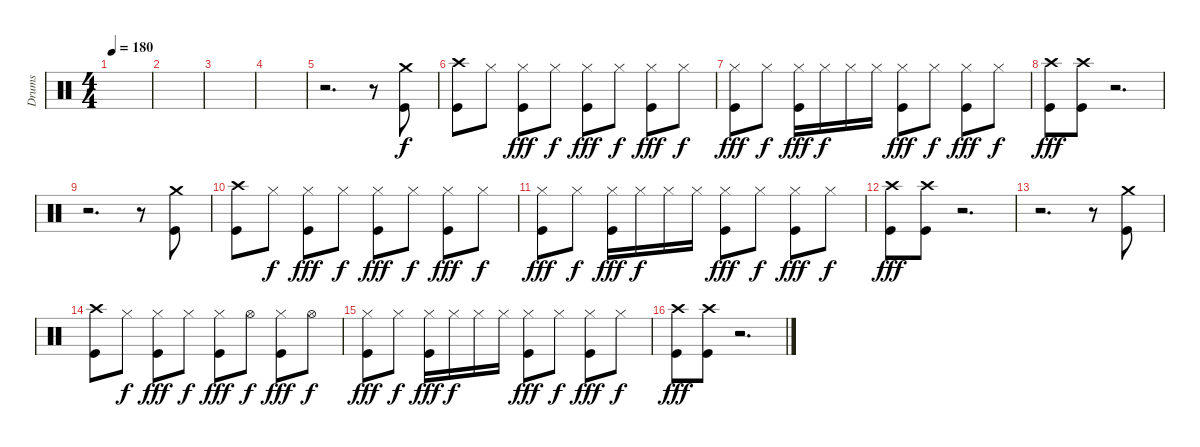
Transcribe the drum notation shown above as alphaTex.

\track ("Drums" "Drums") {instrument percussion}
\staff {score}
\articulation defaults
\ts (4 4)
\tempo 180
\clef neutral
\ks c
|
|
|
|
r.2{d} r.8 ("Crash medium (hit)" "Kick (hit)").8 |
("Crash high (hit)" "Kick (hit)").8 "Hi-Hat (closed)".8{dy f} ("Hi-Hat (closed)" "Kick (hit)").8{dy fff} "Hi-Hat (closed)".8{dy f} ("Hi-Hat (closed)" "Kick (hit)").8{dy fff} "Hi-Hat (closed)".8{dy f} ("Hi-Hat (closed)" "Kick (hit)").8{dy fff} "Hi-Hat (closed)".8{dy f} |
("Hi-Hat (closed)" "Kick (hit)").8{dy fff} "Hi-Hat (closed)".8{dy f} ("Hi-Hat (closed)" "Kick (hit)").16{dy fff} "Hi-Hat (closed)".16{dy f} "Hi-Hat (closed)".16 "Hi-Hat (closed)".16 ("Hi-Hat (closed)" "Kick (hit)").8{dy fff} "Hi-Hat (closed)".8{dy f} ("Hi-Hat (closed)" "Kick (hit)").8{dy fff} "Hi-Hat (closed)".8{dy f} |
("Crash high (hit)" "Kick (hit)").8{dy fff} ("Crash high (hit)" "Kick (hit)").8 r.2{d} |
r.2{d} r.8 ("Crash medium (hit)" "Kick (hit)").8 |
("Crash high (hit)" "Kick (hit)").8 "Hi-Hat (closed)".8{dy f} ("Hi-Hat (closed)" "Kick (hit)").8{dy fff} "Hi-Hat (closed)".8{dy f} ("Hi-Hat (closed)" "Kick (hit)").8{dy fff} "Hi-Hat (closed)".8{dy f} ("Hi-Hat (closed)" "Kick (hit)").8{dy fff} "Hi-Hat (closed)".8{dy f} |
("Hi-Hat (closed)" "Kick (hit)").8{dy fff} "Hi-Hat (closed)".8{dy f} ("Hi-Hat (closed)" "Kick (hit)").16{dy fff} "Hi-Hat (closed)".16{dy f} "Hi-Hat (closed)".16 "Hi-Hat (closed)".16 ("Hi-Hat (closed)" "Kick (hit)").8{dy fff} "Hi-Hat (closed)".8{dy f} ("Hi-Hat (closed)" "Kick (hit)").8{dy fff} "Hi-Hat (closed)".8{dy f} |
("Crash high (hit)" "Kick (hit)").8{dy fff} ("Crash high (hit)" "Kick (hit)").8 r.2{d} |
r.2{d} r.8 ("Crash medium (hit)" "Kick (hit)").8 |
("Crash high (hit)" "Kick (hit)").8 "Hi-Hat (closed)".8{dy f} ("Hi-Hat (closed)" "Kick (hit)").8{dy fff} "Hi-Hat (closed)".8{dy f} ("Hi-Hat (closed)" "Kick (hit)").8{dy fff} "Hi-Hat (open)".8{dy f} ("Hi-Hat (closed)" "Kick (hit)").8{dy fff} "Hi-Hat (open)".8{dy f} |
("Hi-Hat (closed)" "Kick (hit)").8{dy fff} "Hi-Hat (closed)".8{dy f} ("Hi-Hat (closed)" "Kick (hit)").16{dy fff} "Hi-Hat (closed)".16{dy f} "Hi-Hat (closed)".16 "Hi-Hat (closed)".16 ("Hi-Hat (closed)" "Kick (hit)").8{dy fff} "Hi-Hat (closed)".8{dy f} ("Hi-Hat (closed)" "Kick (hit)").8{dy fff} "Hi-Hat (closed)".8{dy f} |
("Crash high (hit)" "Kick (hit)").8{dy fff} ("Crash high (hit)" "Kick (hit)").8 r.2{d}
